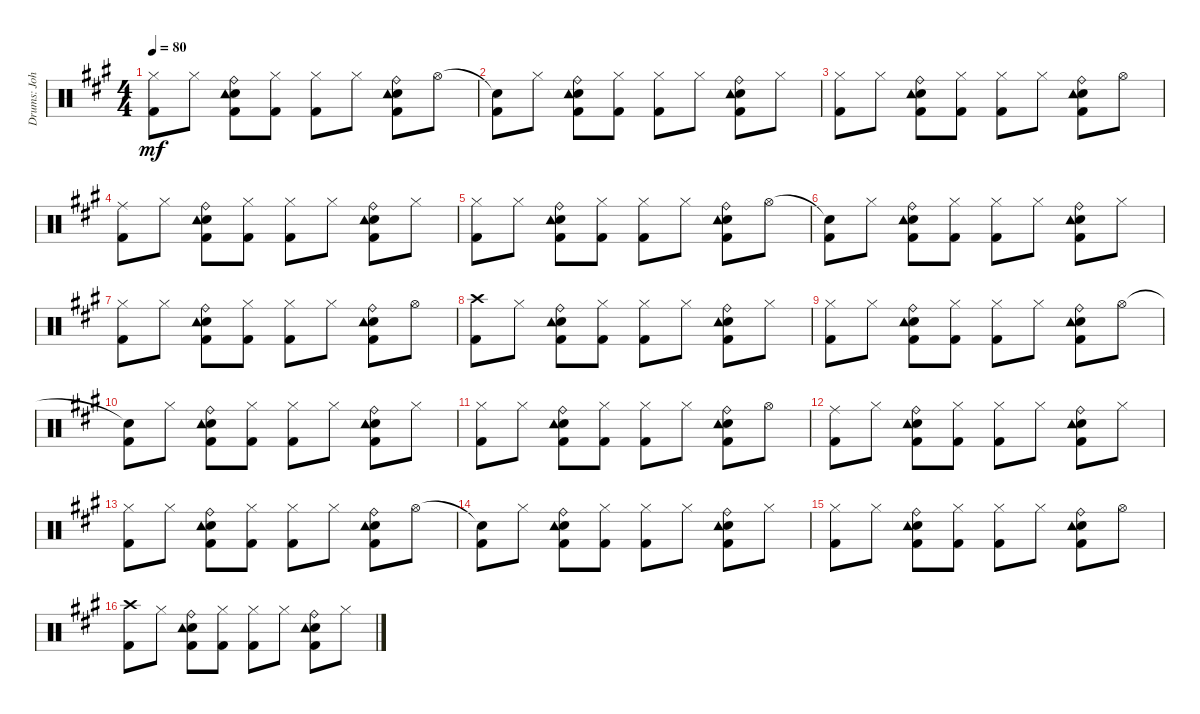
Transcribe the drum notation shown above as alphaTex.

\track ("Drums: John Wilcox" "Drums: Joh") {instrument percussion}
\staff {score}
\articulation defaults
\ts (4 4)
\tempo 80
\clef neutral
\ks a
("Hi-Hat (closed)" "Kick (hit) 2").8{dy mf} "Hi-Hat (closed)".8 ("Ride (bell)" "Snare (hit) 2" "Kick (hit) 2" "Tambourine (hit)").8 ("Hi-Hat (closed)" "Kick (hit) 2").8 ("Hi-Hat (closed)" "Kick (hit) 2").8 "Hi-Hat (closed)".8 ("Ride (bell)" "Snare (hit) 2" "Kick (hit) 2" "Tambourine (hit)").8 "Hi-Hat (open)".8 |
("Snare (hit)"{t} "Kick (hit) 2").8 "Hi-Hat (closed)".8 ("Ride (bell)" "Snare (hit) 2" "Kick (hit) 2" "Tambourine (hit)").8 ("Hi-Hat (closed)" "Kick (hit) 2").8 ("Hi-Hat (closed)" "Kick (hit) 2").8 "Hi-Hat (closed)".8 ("Ride (bell)" "Snare (hit) 2" "Kick (hit) 2" "Tambourine (hit)").8 "Hi-Hat (closed)".8 |
("Hi-Hat (closed)" "Kick (hit) 2").8 "Hi-Hat (closed)".8 ("Ride (bell)" "Snare (hit) 2" "Kick (hit) 2" "Tambourine (hit)").8 ("Hi-Hat (closed)" "Kick (hit) 2").8 ("Hi-Hat (closed)" "Kick (hit) 2").8 "Hi-Hat (closed)".8 ("Ride (bell)" "Snare (hit) 2" "Kick (hit) 2" "Tambourine (hit)").8 "Hi-Hat (open)".8 |
("Ride (middle)" "Kick (hit) 2").8 "Hi-Hat (closed)".8 ("Ride (bell)" "Snare (hit) 2" "Kick (hit) 2" "Tambourine (hit)").8 ("Hi-Hat (closed)" "Kick (hit) 2").8 ("Hi-Hat (closed)" "Kick (hit) 2").8 "Hi-Hat (closed)".8 ("Ride (bell)" "Snare (hit) 2" "Kick (hit) 2" "Tambourine (hit)").8 "Hi-Hat (closed)".8 |
("Hi-Hat (closed)" "Kick (hit) 2").8 "Hi-Hat (closed)".8 ("Ride (bell)" "Snare (hit) 2" "Kick (hit) 2" "Tambourine (hit)").8 ("Hi-Hat (closed)" "Kick (hit) 2").8 ("Hi-Hat (closed)" "Kick (hit) 2").8 "Hi-Hat (closed)".8 ("Ride (bell)" "Snare (hit) 2" "Kick (hit) 2" "Tambourine (hit)").8 "Hi-Hat (open)".8 |
("Snare (hit)"{t} "Kick (hit) 2").8 "Hi-Hat (closed)".8 ("Ride (bell)" "Snare (hit) 2" "Kick (hit) 2" "Tambourine (hit)").8 ("Hi-Hat (closed)" "Kick (hit) 2").8 ("Hi-Hat (closed)" "Kick (hit) 2").8 "Hi-Hat (closed)".8 ("Ride (bell)" "Snare (hit) 2" "Kick (hit) 2" "Tambourine (hit)").8 "Hi-Hat (closed)".8 |
("Hi-Hat (closed)" "Kick (hit) 2").8 "Hi-Hat (closed)".8 ("Ride (bell)" "Snare (hit) 2" "Kick (hit) 2" "Tambourine (hit)").8 ("Hi-Hat (closed)" "Kick (hit) 2").8 ("Hi-Hat (closed)" "Kick (hit) 2").8 "Hi-Hat (closed)".8 ("Ride (bell)" "Snare (hit) 2" "Kick (hit) 2" "Tambourine (hit)").8 "Hi-Hat (open)".8 |
("Crash high (hit)" "Kick (hit) 2").8 "Hi-Hat (closed)".8 ("Ride (bell)" "Snare (hit) 2" "Kick (hit) 2" "Tambourine (hit)").8 ("Hi-Hat (closed)" "Kick (hit) 2").8 ("Hi-Hat (closed)" "Kick (hit) 2").8 "Hi-Hat (closed)".8 ("Ride (bell)" "Snare (hit) 2" "Kick (hit) 2" "Tambourine (hit)").8 "Hi-Hat (closed)".8 |
("Hi-Hat (closed)" "Kick (hit) 2").8 "Hi-Hat (closed)".8 ("Ride (bell)" "Snare (hit) 2" "Kick (hit) 2" "Tambourine (hit)").8 ("Hi-Hat (closed)" "Kick (hit) 2").8 ("Hi-Hat (closed)" "Kick (hit) 2").8 "Hi-Hat (closed)".8 ("Ride (bell)" "Snare (hit) 2" "Kick (hit) 2" "Tambourine (hit)").8 "Hi-Hat (open)".8 |
("Snare (hit)"{t} "Kick (hit) 2").8 "Hi-Hat (closed)".8 ("Ride (bell)" "Snare (hit) 2" "Kick (hit) 2" "Tambourine (hit)").8 ("Hi-Hat (closed)" "Kick (hit) 2").8 ("Hi-Hat (closed)" "Kick (hit) 2").8 "Hi-Hat (closed)".8 ("Ride (bell)" "Snare (hit) 2" "Kick (hit) 2" "Tambourine (hit)").8 "Hi-Hat (closed)".8 |
("Hi-Hat (closed)" "Kick (hit) 2").8 "Hi-Hat (closed)".8 ("Ride (bell)" "Snare (hit) 2" "Kick (hit) 2" "Tambourine (hit)").8 ("Hi-Hat (closed)" "Kick (hit) 2").8 ("Hi-Hat (closed)" "Kick (hit) 2").8 "Hi-Hat (closed)".8 ("Ride (bell)" "Snare (hit) 2" "Kick (hit) 2" "Tambourine (hit)").8 "Hi-Hat (open)".8 |
("Ride (middle)" "Kick (hit) 2").8 "Hi-Hat (closed)".8 ("Ride (bell)" "Snare (hit) 2" "Kick (hit) 2" "Tambourine (hit)").8 ("Hi-Hat (closed)" "Kick (hit) 2").8 ("Hi-Hat (closed)" "Kick (hit) 2").8 "Hi-Hat (closed)".8 ("Ride (bell)" "Snare (hit) 2" "Kick (hit) 2" "Tambourine (hit)").8 "Hi-Hat (closed)".8 |
("Hi-Hat (closed)" "Kick (hit) 2").8 "Hi-Hat (closed)".8 ("Ride (bell)" "Snare (hit) 2" "Kick (hit) 2" "Tambourine (hit)").8 ("Hi-Hat (closed)" "Kick (hit) 2").8 ("Hi-Hat (closed)" "Kick (hit) 2").8 "Hi-Hat (closed)".8 ("Ride (bell)" "Snare (hit) 2" "Kick (hit) 2" "Tambourine (hit)").8 "Hi-Hat (open)".8 |
("Snare (hit)"{t} "Kick (hit) 2").8 "Hi-Hat (closed)".8 ("Ride (bell)" "Snare (hit) 2" "Kick (hit) 2" "Tambourine (hit)").8 ("Hi-Hat (closed)" "Kick (hit) 2").8 ("Hi-Hat (closed)" "Kick (hit) 2").8 "Hi-Hat (closed)".8 ("Ride (bell)" "Snare (hit) 2" "Kick (hit) 2" "Tambourine (hit)").8 "Hi-Hat (closed)".8 |
("Hi-Hat (closed)" "Kick (hit) 2").8 "Hi-Hat (closed)".8 ("Ride (bell)" "Snare (hit) 2" "Kick (hit) 2" "Tambourine (hit)").8 ("Hi-Hat (closed)" "Kick (hit) 2").8 ("Hi-Hat (closed)" "Kick (hit) 2").8 "Hi-Hat (closed)".8 ("Ride (bell)" "Snare (hit) 2" "Kick (hit) 2" "Tambourine (hit)").8 "Hi-Hat (open)".8 |
("Crash high (hit)" "Kick (hit) 2").8 "Hi-Hat (closed)".8 ("Ride (bell)" "Snare (hit) 2" "Kick (hit) 2" "Tambourine (hit)").8 ("Hi-Hat (closed)" "Kick (hit) 2").8 ("Hi-Hat (closed)" "Kick (hit) 2").8 "Hi-Hat (closed)".8 ("Ride (bell)" "Snare (hit) 2" "Kick (hit) 2" "Tambourine (hit)").8 "Hi-Hat (closed)".8
